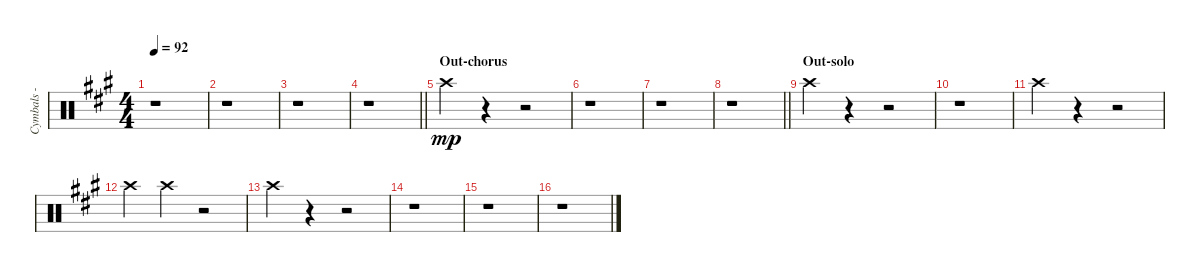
\track ("Cymbals - crash" "Cymbals - ") {instrument percussion}
\staff {score}
\articulation defaults
\ts (4 4)
\tempo 92
\clef neutral
\ks f#minor
r.1{dy mp} |
r.1 |
r.1 |
\barLineRight lightlight
r.1 |
\section ("" "Out-chorus")
"Crash high (hit)".4 r.4 r.2 |
r.1 |
r.1 |
\barLineRight lightlight
r.1 |
\section ("" "Out-solo")
"Crash high (hit)".4 r.4 r.2 |
r.1 |
"Crash high (hit)".4 r.4 r.2 |
"Crash high (hit)".4 "Crash high (hit)".4 r.2 |
"Crash high (hit)".4 r.4 r.2 |
r.1 |
r.1 |
r.1
